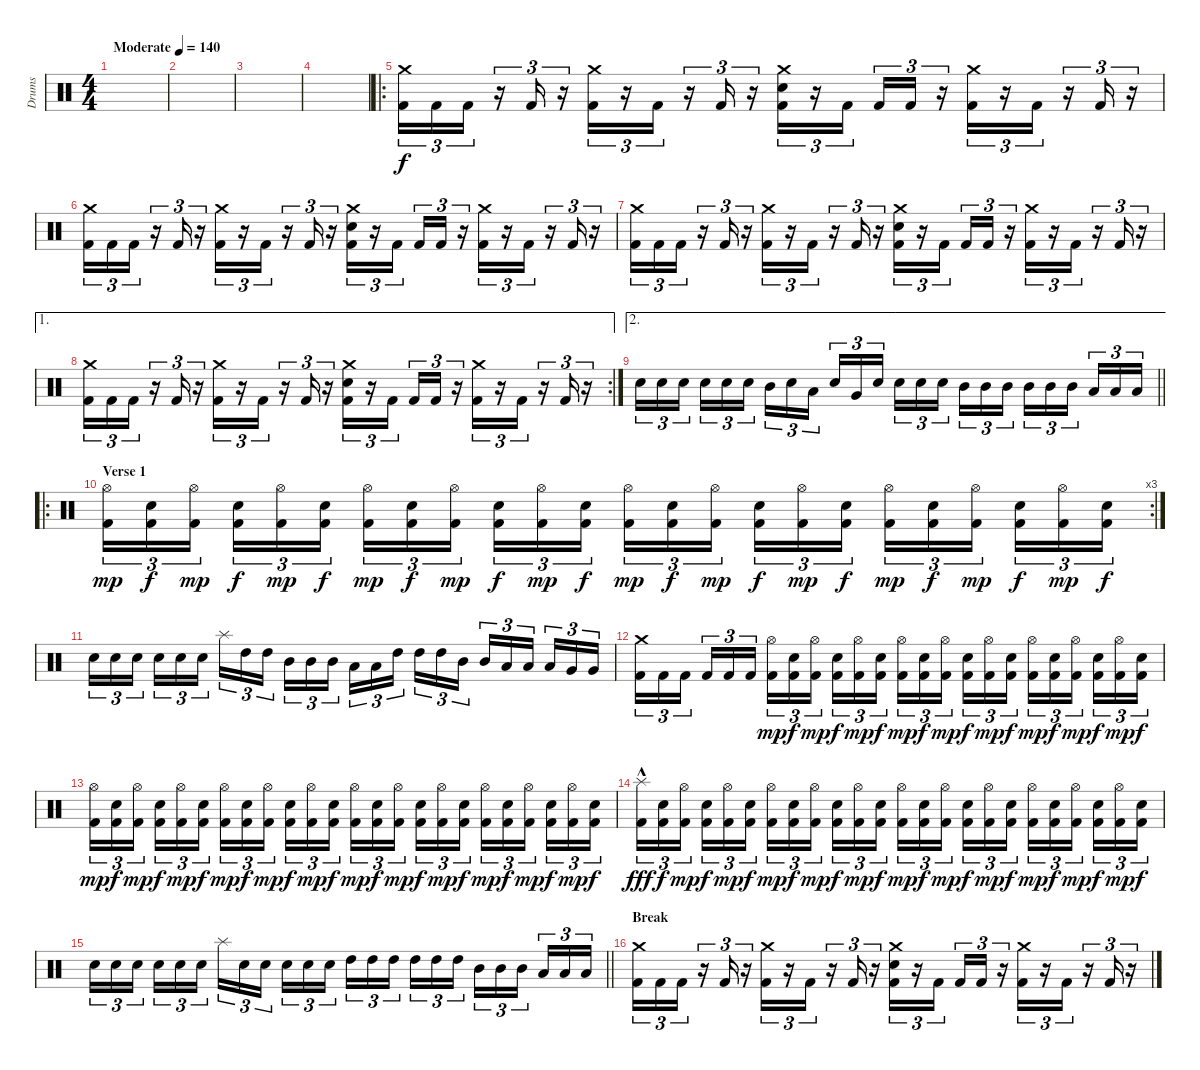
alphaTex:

\track ("Drums" "Drums") {instrument percussion}
\staff {score}
\articulation defaults
\ts (4 4)
\tempo (140 "Moderate")
\clef neutral
\ks c
|
|
|
|
\ro
("Crash medium (hit)" "Kick (hit) 2").16{tu (3 2)} "Kick (hit) 2".16{tu (3 2)} "Kick (hit) 2".16{tu (3 2)} r.16{tu (3 2)} "Kick (hit) 2".16{tu (3 2)} r.16{tu (3 2)} ("Crash medium (hit)" "Kick (hit) 2").16{tu (3 2)} r.16{tu (3 2)} "Kick (hit) 2".16{tu (3 2)} r.16{tu (3 2)} "Kick (hit) 2".16{tu (3 2)} r.16{tu (3 2)} ("Crash medium (hit)" "Electric Snare (hit)" "Kick (hit) 2").16{tu (3 2)} r.16{tu (3 2)} "Kick (hit) 2".16{tu (3 2) beam splitsecondary} "Kick (hit) 2".16{tu (3 2)} "Kick (hit) 2".16{tu (3 2)} r.16{tu (3 2)} ("Crash medium (hit)" "Kick (hit) 2").16{tu (3 2)} r.16{tu (3 2)} "Kick (hit) 2".16{tu (3 2)} r.16{tu (3 2)} "Kick (hit) 2".16{tu (3 2)} r.16{tu (3 2)} |
("Crash medium (hit)" "Kick (hit) 2").16{tu (3 2)} "Kick (hit) 2".16{tu (3 2)} "Kick (hit) 2".16{tu (3 2)} r.16{tu (3 2)} "Kick (hit) 2".16{tu (3 2)} r.16{tu (3 2)} ("Crash medium (hit)" "Kick (hit) 2").16{tu (3 2)} r.16{tu (3 2)} "Kick (hit) 2".16{tu (3 2)} r.16{tu (3 2)} "Kick (hit) 2".16{tu (3 2)} r.16{tu (3 2)} ("Crash medium (hit)" "Electric Snare (hit)" "Kick (hit) 2").16{tu (3 2)} r.16{tu (3 2)} "Kick (hit) 2".16{tu (3 2) beam splitsecondary} "Kick (hit) 2".16{tu (3 2)} "Kick (hit) 2".16{tu (3 2)} r.16{tu (3 2)} ("Crash medium (hit)" "Kick (hit) 2").16{tu (3 2)} r.16{tu (3 2)} "Kick (hit) 2".16{tu (3 2)} r.16{tu (3 2)} "Kick (hit) 2".16{tu (3 2)} r.16{tu (3 2)} |
("Crash medium (hit)" "Kick (hit) 2").16{tu (3 2)} "Kick (hit) 2".16{tu (3 2)} "Kick (hit) 2".16{tu (3 2)} r.16{tu (3 2)} "Kick (hit) 2".16{tu (3 2)} r.16{tu (3 2)} ("Crash medium (hit)" "Kick (hit) 2").16{tu (3 2)} r.16{tu (3 2)} "Kick (hit) 2".16{tu (3 2)} r.16{tu (3 2)} "Kick (hit) 2".16{tu (3 2)} r.16{tu (3 2)} ("Crash medium (hit)" "Electric Snare (hit)" "Kick (hit) 2").16{tu (3 2)} r.16{tu (3 2)} "Kick (hit) 2".16{tu (3 2) beam splitsecondary} "Kick (hit) 2".16{tu (3 2)} "Kick (hit) 2".16{tu (3 2)} r.16{tu (3 2)} ("Crash medium (hit)" "Kick (hit) 2").16{tu (3 2)} r.16{tu (3 2)} "Kick (hit) 2".16{tu (3 2)} r.16{tu (3 2)} "Kick (hit) 2".16{tu (3 2)} r.16{tu (3 2)} |
\ae 1
\rc 2
("Crash medium (hit)" "Kick (hit) 2").16{tu (3 2)} "Kick (hit) 2".16{tu (3 2)} "Kick (hit) 2".16{tu (3 2)} r.16{tu (3 2)} "Kick (hit) 2".16{tu (3 2)} r.16{tu (3 2)} ("Crash medium (hit)" "Kick (hit) 2").16{tu (3 2)} r.16{tu (3 2)} "Kick (hit) 2".16{tu (3 2)} r.16{tu (3 2)} "Kick (hit) 2".16{tu (3 2)} r.16{tu (3 2)} ("Crash medium (hit)" "Electric Snare (hit)" "Kick (hit) 2").16{tu (3 2)} r.16{tu (3 2)} "Kick (hit) 2".16{tu (3 2) beam splitsecondary} "Kick (hit) 2".16{tu (3 2)} "Kick (hit) 2".16{tu (3 2)} r.16{tu (3 2)} ("Crash medium (hit)" "Kick (hit) 2").16{tu (3 2)} r.16{tu (3 2)} "Kick (hit) 2".16{tu (3 2)} r.16{tu (3 2)} "Kick (hit) 2".16{tu (3 2)} r.16{tu (3 2)} |
\ae 2
\barLineRight lightlight "Electric Snare (hit)".16{tu (3 2)} "Electric Snare (hit)".16{tu (3 2)} "Electric Snare (hit)".16{tu (3 2) beam splitsecondary} "Electric Snare (hit)".16{tu (3 2)} "Electric Snare (hit)".16{tu (3 2)} "Electric Snare (hit)".16{tu (3 2)} "Mid Tom (hit)".16{tu (3 2)} "Electric Snare (hit)".16{tu (3 2)} "Low Tom (hit)".16{tu (3 2) beam splitsecondary} "Electric Snare (hit)".16{tu (3 2)} "Very Low Tom (hit)".16{tu (3 2)} "Electric Snare (hit)".16{tu (3 2)} "Electric Snare (hit)".16{tu (3 2)} "Electric Snare (hit)".16{tu (3 2)} "Electric Snare (hit)".16{tu (3 2) beam splitsecondary} "Mid Tom (hit)".16{tu (3 2)} "Mid Tom (hit)".16{tu (3 2)} "Mid Tom (hit)".16{tu (3 2)} "Mid Tom (hit)".16{tu (3 2)} "Mid Tom (hit)".16{tu (3 2)} "Mid Tom (hit)".16{tu (3 2) beam splitsecondary} "Low Tom (hit)".16{tu (3 2)} "Low Tom (hit)".16{tu (3 2)} "Low Tom (hit)".16{tu (3 2)}
|
\ro
\rc 3
\section ("" "Verse 1")
("Hi-Hat (open)" "Kick (hit) 2").16{tu (3 2) dy mp} ("Electric Snare (hit)" "Kick (hit) 2").16{tu (3 2) dy f} ("Hi-Hat (open)" "Kick (hit) 2").16{tu (3 2) dy mp beam splitsecondary} ("Electric Snare (hit)" "Kick (hit) 2").16{tu (3 2) dy f} ("Hi-Hat (open)" "Kick (hit) 2").16{tu (3 2) dy mp} ("Electric Snare (hit)" "Kick (hit) 2").16{tu (3 2) dy f} ("Hi-Hat (open)" "Kick (hit) 2").16{tu (3 2) dy mp} ("Electric Snare (hit)" "Kick (hit) 2").16{tu (3 2) dy f} ("Hi-Hat (open)" "Kick (hit) 2").16{tu (3 2) dy mp beam splitsecondary} ("Electric Snare (hit)" "Kick (hit) 2").16{tu (3 2) dy f} ("Hi-Hat (open)" "Kick (hit) 2").16{tu (3 2) dy mp} ("Electric Snare (hit)" "Kick (hit) 2").16{tu (3 2) dy f} ("Hi-Hat (open)" "Kick (hit) 2").16{tu (3 2) dy mp} ("Electric Snare (hit)" "Kick (hit) 2").16{tu (3 2) dy f} ("Hi-Hat (open)" "Kick (hit) 2").16{tu (3 2) dy mp beam splitsecondary} ("Electric Snare (hit)" "Kick (hit) 2").16{tu (3 2) dy f} ("Hi-Hat (open)" "Kick (hit) 2").16{tu (3 2) dy mp} ("Electric Snare (hit)" "Kick (hit) 2").16{tu (3 2) dy f} ("Hi-Hat (open)" "Kick (hit) 2").16{tu (3 2) dy mp} ("Electric Snare (hit)" "Kick (hit) 2").16{tu (3 2) dy f} ("Hi-Hat (open)" "Kick (hit) 2").16{tu (3 2) dy mp beam splitsecondary} ("Electric Snare (hit)" "Kick (hit) 2").16{tu (3 2) dy f} ("Hi-Hat (open)" "Kick (hit) 2").16{tu (3 2) dy mp} ("Electric Snare (hit)" "Kick (hit) 2").16{tu (3 2) dy f} |
"Electric Snare (hit)".16{tu (3 2)} "Electric Snare (hit)".16{tu (3 2)} "Electric Snare (hit)".16{tu (3 2) beam splitsecondary} "Electric Snare (hit)".16{tu (3 2)} "Electric Snare (hit)".16{tu (3 2)} "Electric Snare (hit)".16{tu (3 2)} "Splash (hit)".16{tu (3 2)} "High Tom (hit)".16{tu (3 2)} "High Tom (hit)".16{tu (3 2) beam splitsecondary} "Mid Tom (hit)".16{tu (3 2)} "Mid Tom (hit)".16{tu (3 2)} "Mid Tom (hit)".16{tu (3 2)} "Low Tom (hit)".16{tu (3 2)} "Low Tom (hit)".16{tu (3 2)} "High Tom (hit)".16{tu (3 2) beam splitsecondary} "High Tom (hit)".16{tu (3 2)} "High Tom (hit)".16{tu (3 2)} "Mid Tom (hit)".16{tu (3 2)} "Mid Tom (hit)".16{tu (3 2)} "Low Tom (hit)".16{tu (3 2)} "Low Tom (hit)".16{tu (3 2) beam splitsecondary} "Low Tom (hit)".16{tu (3 2)} "Very Low Tom (hit)".16{tu (3 2)} "Very Low Tom (hit)".16{tu (3 2)} |
("Crash medium (hit)" "Kick (hit) 2").16{tu (3 2)} "Kick (hit) 2".16{tu (3 2)} "Kick (hit) 2".16{tu (3 2) beam splitsecondary} "Kick (hit) 2".16{tu (3 2)} "Kick (hit) 2".16{tu (3 2)} "Kick (hit) 2".16{tu (3 2)} ("Hi-Hat (open)" "Kick (hit) 2").16{tu (3 2) dy mp} ("Electric Snare (hit)" "Kick (hit) 2").16{tu (3 2) dy f} ("Hi-Hat (open)" "Kick (hit) 2").16{tu (3 2) dy mp beam splitsecondary} ("Electric Snare (hit)" "Kick (hit) 2").16{tu (3 2) dy f} ("Hi-Hat (open)" "Kick (hit) 2").16{tu (3 2) dy mp} ("Electric Snare (hit)" "Kick (hit) 2").16{tu (3 2) dy f} ("Hi-Hat (open)" "Kick (hit) 2").16{tu (3 2) dy mp} ("Electric Snare (hit)" "Kick (hit) 2").16{tu (3 2) dy f} ("Hi-Hat (open)" "Kick (hit) 2").16{tu (3 2) dy mp beam splitsecondary} ("Electric Snare (hit)" "Kick (hit) 2").16{tu (3 2) dy f} ("Hi-Hat (open)" "Kick (hit) 2").16{tu (3 2) dy mp} ("Electric Snare (hit)" "Kick (hit) 2").16{tu (3 2) dy f} ("Hi-Hat (open)" "Kick (hit) 2").16{tu (3 2) dy mp} ("Electric Snare (hit)" "Kick (hit) 2").16{tu (3 2) dy f} ("Hi-Hat (open)" "Kick (hit) 2").16{tu (3 2) dy mp beam splitsecondary} ("Electric Snare (hit)" "Kick (hit) 2").16{tu (3 2) dy f} ("Hi-Hat (open)" "Kick (hit) 2").16{tu (3 2) dy mp} ("Electric Snare (hit)" "Kick (hit) 2").16{tu (3 2) dy f} |
("Hi-Hat (open)" "Kick (hit) 2").16{tu (3 2) dy mp} ("Electric Snare (hit)" "Kick (hit) 2").16{tu (3 2) dy f} ("Hi-Hat (open)" "Kick (hit) 2").16{tu (3 2) dy mp beam splitsecondary} ("Electric Snare (hit)" "Kick (hit) 2").16{tu (3 2) dy f} ("Hi-Hat (open)" "Kick (hit) 2").16{tu (3 2) dy mp} ("Electric Snare (hit)" "Kick (hit) 2").16{tu (3 2) dy f} ("Hi-Hat (open)" "Kick (hit) 2").16{tu (3 2) dy mp} ("Electric Snare (hit)" "Kick (hit) 2").16{tu (3 2) dy f} ("Hi-Hat (open)" "Kick (hit) 2").16{tu (3 2) dy mp beam splitsecondary} ("Electric Snare (hit)" "Kick (hit) 2").16{tu (3 2) dy f} ("Hi-Hat (open)" "Kick (hit) 2").16{tu (3 2) dy mp} ("Electric Snare (hit)" "Kick (hit) 2").16{tu (3 2) dy f} ("Hi-Hat (open)" "Kick (hit) 2").16{tu (3 2) dy mp} ("Electric Snare (hit)" "Kick (hit) 2").16{tu (3 2) dy f} ("Hi-Hat (open)" "Kick (hit) 2").16{tu (3 2) dy mp beam splitsecondary} ("Electric Snare (hit)" "Kick (hit) 2").16{tu (3 2) dy f} ("Hi-Hat (open)" "Kick (hit) 2").16{tu (3 2) dy mp} ("Electric Snare (hit)" "Kick (hit) 2").16{tu (3 2) dy f} ("Hi-Hat (open)" "Kick (hit) 2").16{tu (3 2) dy mp} ("Electric Snare (hit)" "Kick (hit) 2").16{tu (3 2) dy f} ("Hi-Hat (open)" "Kick (hit) 2").16{tu (3 2) dy mp beam splitsecondary} ("Electric Snare (hit)" "Kick (hit) 2").16{tu (3 2) dy f} ("Hi-Hat (open)" "Kick (hit) 2").16{tu (3 2) dy mp} ("Electric Snare (hit)" "Kick (hit) 2").16{tu (3 2) dy f} |
("Splash (hit)"{hac} "Kick (hit) 2").16{tu (3 2) dy fff} ("Electric Snare (hit)" "Kick (hit) 2").16{tu (3 2) dy f} ("Hi-Hat (open)" "Kick (hit) 2").16{tu (3 2) dy mp beam splitsecondary} ("Electric Snare (hit)" "Kick (hit) 2").16{tu (3 2) dy f} ("Hi-Hat (open)" "Kick (hit) 2").16{tu (3 2) dy mp} ("Electric Snare (hit)" "Kick (hit) 2").16{tu (3 2) dy f} ("Hi-Hat (open)" "Kick (hit) 2").16{tu (3 2) dy mp} ("Electric Snare (hit)" "Kick (hit) 2").16{tu (3 2) dy f} ("Hi-Hat (open)" "Kick (hit) 2").16{tu (3 2) dy mp beam splitsecondary} ("Electric Snare (hit)" "Kick (hit) 2").16{tu (3 2) dy f} ("Hi-Hat (open)" "Kick (hit) 2").16{tu (3 2) dy mp} ("Electric Snare (hit)" "Kick (hit) 2").16{tu (3 2) dy f} ("Hi-Hat (open)" "Kick (hit) 2").16{tu (3 2) dy mp} ("Electric Snare (hit)" "Kick (hit) 2").16{tu (3 2) dy f} ("Hi-Hat (open)" "Kick (hit) 2").16{tu (3 2) dy mp beam splitsecondary} ("Electric Snare (hit)" "Kick (hit) 2").16{tu (3 2) dy f} ("Hi-Hat (open)" "Kick (hit) 2").16{tu (3 2) dy mp} ("Electric Snare (hit)" "Kick (hit) 2").16{tu (3 2) dy f} ("Hi-Hat (open)" "Kick (hit) 2").16{tu (3 2) dy mp} ("Electric Snare (hit)" "Kick (hit) 2").16{tu (3 2) dy f} ("Hi-Hat (open)" "Kick (hit) 2").16{tu (3 2) dy mp beam splitsecondary} ("Electric Snare (hit)" "Kick (hit) 2").16{tu (3 2) dy f} ("Hi-Hat (open)" "Kick (hit) 2").16{tu (3 2) dy mp} ("Electric Snare (hit)" "Kick (hit) 2").16{tu (3 2) dy f} |
\barLineRight lightlight "Electric Snare (hit)".16{tu (3 2)} "Electric Snare (hit)".16{tu (3 2)} "Electric Snare (hit)".16{tu (3 2) beam splitsecondary} "Electric Snare (hit)".16{tu (3 2)} "Electric Snare (hit)".16{tu (3 2)} "Electric Snare (hit)".16{tu (3 2)} "Splash (hit)".16{tu (3 2)} "Electric Snare (hit)".16{tu (3 2)} "Electric Snare (hit)".16{tu (3 2) beam splitsecondary} "Electric Snare (hit)".16{tu (3 2)} "Electric Snare (hit)".16{tu (3 2)} "Electric Snare (hit)".16{tu (3 2)} "High Tom (hit)".16{tu (3 2)} "High Tom (hit)".16{tu (3 2)} "High Tom (hit)".16{tu (3 2) beam splitsecondary} "High Tom (hit)".16{tu (3 2)} "High Tom (hit)".16{tu (3 2)} "High Tom (hit)".16{tu (3 2)} "Mid Tom (hit)".16{tu (3 2)} "Mid Tom (hit)".16{tu (3 2)} "Mid Tom (hit)".16{tu (3 2) beam splitsecondary} "Low Tom (hit)".16{tu (3 2)} "Low Tom (hit)".16{tu (3 2)} "Low Tom (hit)".16{tu (3 2)}
|
\section ("" "Break")
("Crash medium (hit)" "Kick (hit) 2").16{tu (3 2)} "Kick (hit) 2".16{tu (3 2)} "Kick (hit) 2".16{tu (3 2)} r.16{tu (3 2)} "Kick (hit) 2".16{tu (3 2)} r.16{tu (3 2)} ("Crash medium (hit)" "Kick (hit) 2").16{tu (3 2)} r.16{tu (3 2)} "Kick (hit) 2".16{tu (3 2)} r.16{tu (3 2)} "Kick (hit) 2".16{tu (3 2)} r.16{tu (3 2)} ("Crash medium (hit)" "Electric Snare (hit)" "Kick (hit) 2").16{tu (3 2)} r.16{tu (3 2)} "Kick (hit) 2".16{tu (3 2) beam splitsecondary} "Kick (hit) 2".16{tu (3 2)} "Kick (hit) 2".16{tu (3 2)} r.16{tu (3 2)} ("Crash medium (hit)" "Kick (hit) 2").16{tu (3 2)} r.16{tu (3 2)} "Kick (hit) 2".16{tu (3 2)} r.16{tu (3 2)} "Kick (hit) 2".16{tu (3 2)} r.16{tu (3 2)}
